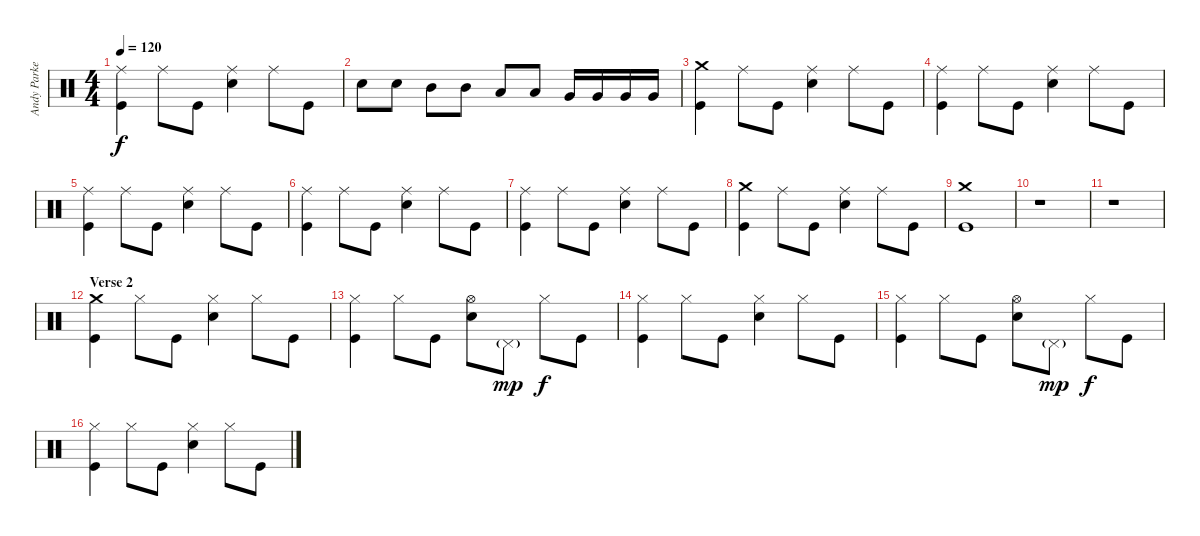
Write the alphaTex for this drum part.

\track ("Andy Parker" "Andy Parke") {instrument percussion}
\staff {score}
\articulation defaults
\ts (4 4)
\tempo 120
\clef neutral
\ks c
("Ride (middle)" "Kick (hit)").4{dy f} "Ride (middle)".8 "Kick (hit)".8 ("Ride (middle)" "Snare (hit) 2").4 "Ride (middle)".8 "Kick (hit)".8 |
"Snare (hit) 2".8 "Snare (hit) 2".8 "Mid Tom (hit)".8 "Mid Tom (hit)".8 "Low Tom (hit)".8 "Low Tom (hit)".8 "Very Low Tom (hit)".16 "Very Low Tom (hit)".16 "Very Low Tom (hit)".16 "Very Low Tom (hit)".16 |
("Crash medium (hit)" "Kick (hit)").4 "Ride (middle)".8 "Kick (hit)".8 ("Ride (middle)" "Snare (hit) 2").4 "Ride (middle)".8 "Kick (hit)".8 |
("Ride (middle)" "Kick (hit)").4 "Ride (middle)".8 "Kick (hit)".8 ("Ride (middle)" "Snare (hit) 2").4 "Ride (middle)".8 "Kick (hit)".8 |
("Ride (middle)" "Kick (hit)").4 "Ride (middle)".8 "Kick (hit)".8 ("Ride (middle)" "Snare (hit) 2").4 "Ride (middle)".8 "Kick (hit)".8 |
("Ride (middle)" "Kick (hit)").4 "Ride (middle)".8 "Kick (hit)".8 ("Ride (middle)" "Snare (hit) 2").4 "Ride (middle)".8 "Kick (hit)".8 |
("Ride (middle)" "Kick (hit)").4 "Ride (middle)".8 "Kick (hit)".8 ("Ride (middle)" "Snare (hit) 2").4 "Ride (middle)".8 "Kick (hit)".8 |
("Crash medium (hit)" "Kick (hit)").4 "Ride (middle)".8 "Kick (hit)".8 ("Ride (middle)" "Snare (hit) 2").4 "Ride (middle)".8 "Kick (hit)".8 |
("Crash medium (hit)" "Kick (hit)").1 |
r.1 |
r.1 |
\section ("" "Verse 2")
("Crash medium (hit)" "Kick (hit)").4 "Hi-Hat (closed)".8 "Kick (hit)".8 ("Hi-Hat (closed)" "Snare (hit) 2").4 "Hi-Hat (closed)".8 "Kick (hit)".8 |
("Hi-Hat (closed)" "Kick (hit)").4 "Hi-Hat (closed)".8 "Kick (hit)".8 ("Hi-Hat (open)" "Snare (hit) 2").8 "Pedal Hi-Hat (hit)"{g}.8{dy mp} "Hi-Hat (closed)".8{dy f} "Kick (hit)".8 |
("Hi-Hat (closed)" "Kick (hit)").4 "Hi-Hat (closed)".8 "Kick (hit)".8 ("Hi-Hat (closed)" "Snare (hit) 2").4 "Hi-Hat (closed)".8 "Kick (hit)".8 |
("Hi-Hat (closed)" "Kick (hit)").4 "Hi-Hat (closed)".8 "Kick (hit)".8 ("Hi-Hat (open)" "Snare (hit) 2").8 "Pedal Hi-Hat (hit)"{g}.8{dy mp} "Hi-Hat (closed)".8{dy f} "Kick (hit)".8 |
("Hi-Hat (closed)" "Kick (hit)").4 "Hi-Hat (closed)".8 "Kick (hit)".8 ("Hi-Hat (closed)" "Snare (hit) 2").4 "Hi-Hat (closed)".8 "Kick (hit)".8
